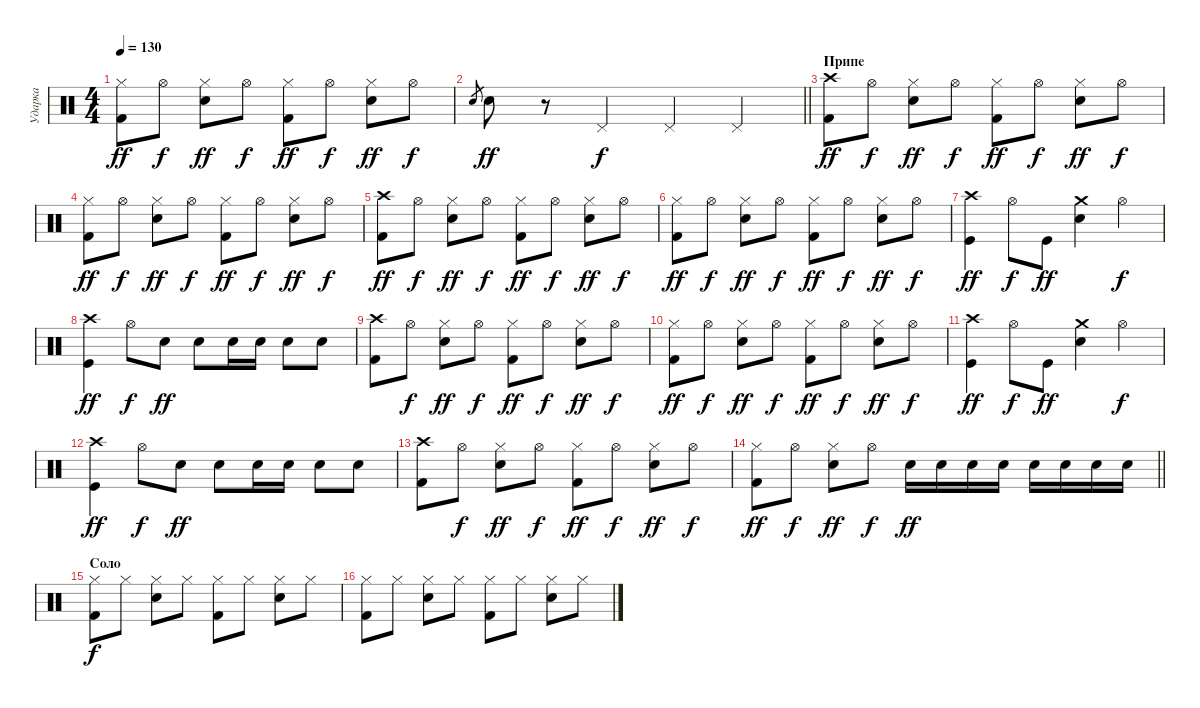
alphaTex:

\track ("Ударка" "Ударка") {instrument percussion}
\staff {score}
\articulation defaults
\ts (4 4)
\tempo 130
\clef neutral
\ks c
("Hi-Hat (closed)" "Kick (hit) 2").8{dy ff} "Hi-Hat (open)".8{dy f} ("Hi-Hat (closed)" "Snare (hit) 2").8{dy ff} "Hi-Hat (open)".8{dy f} ("Hi-Hat (closed)" "Kick (hit) 2").8{dy ff} "Hi-Hat (open)".8{dy f} ("Hi-Hat (closed)" "Snare (hit) 2").8{dy ff} "Hi-Hat (open)".8{dy f} |
\barLineRight lightlight "Snare (hit) 2".8{gr} "Snare (hit) 2".8{dy ff}
r.8 "Pedal Hi-Hat (hit)".4{dy f} "Pedal Hi-Hat (hit)".4 "Pedal Hi-Hat (hit)".4 |
\section ("" "Припе")
("Crash high (hit)" "Kick (hit) 2").8{dy ff} "Hi-Hat (open)".8{dy f} ("Hi-Hat (closed)" "Snare (hit) 2").8{dy ff} "Hi-Hat (open)".8{dy f} ("Hi-Hat (closed)" "Kick (hit) 2").8{dy ff} "Hi-Hat (open)".8{dy f} ("Hi-Hat (closed)" "Snare (hit) 2").8{dy ff} "Hi-Hat (open)".8{dy f} |
("Hi-Hat (closed)" "Kick (hit) 2").8{dy ff} "Hi-Hat (open)".8{dy f} ("Hi-Hat (closed)" "Snare (hit) 2").8{dy ff} "Hi-Hat (open)".8{dy f} ("Hi-Hat (closed)" "Kick (hit) 2").8{dy ff} "Hi-Hat (open)".8{dy f} ("Hi-Hat (closed)" "Snare (hit) 2").8{dy ff} "Hi-Hat (open)".8{dy f} |
("Crash high (hit)" "Kick (hit) 2").8{dy ff} "Hi-Hat (open)".8{dy f} ("Hi-Hat (closed)" "Snare (hit) 2").8{dy ff} "Hi-Hat (open)".8{dy f} ("Hi-Hat (closed)" "Kick (hit) 2").8{dy ff} "Hi-Hat (open)".8{dy f} ("Hi-Hat (closed)" "Snare (hit) 2").8{dy ff} "Hi-Hat (open)".8{dy f} |
("Hi-Hat (closed)" "Kick (hit) 2").8{dy ff} "Hi-Hat (open)".8{dy f} ("Hi-Hat (closed)" "Snare (hit) 2").8{dy ff} "Hi-Hat (open)".8{dy f} ("Hi-Hat (closed)" "Kick (hit) 2").8{dy ff} "Hi-Hat (open)".8{dy f} ("Hi-Hat (closed)" "Snare (hit) 2").8{dy ff} "Hi-Hat (open)".8{dy f} |
("Kick (hit)" "Crash high (hit)").4{dy ff} "Hi-Hat (open)".8{dy f} "Kick (hit)".8{dy ff} ("Snare (hit) 2" "Crash medium (hit)").4 "Hi-Hat (open)".4{dy f} |
("Kick (hit)" "Crash high (hit)").4{dy ff} "Hi-Hat (open)".8{dy f} "Snare (hit) 2".8{dy ff} "Snare (hit) 2".8 "Snare (hit) 2".16 "Snare (hit) 2".16 "Snare (hit) 2".8 "Snare (hit) 2".8 |
("Crash high (hit)" "Kick (hit) 2").8 "Hi-Hat (open)".8{dy f} ("Hi-Hat (closed)" "Snare (hit) 2").8{dy ff} "Hi-Hat (open)".8{dy f} ("Hi-Hat (closed)" "Kick (hit) 2").8{dy ff} "Hi-Hat (open)".8{dy f} ("Hi-Hat (closed)" "Snare (hit) 2").8{dy ff} "Hi-Hat (open)".8{dy f} |
("Hi-Hat (closed)" "Kick (hit) 2").8{dy ff} "Hi-Hat (open)".8{dy f} ("Hi-Hat (closed)" "Snare (hit) 2").8{dy ff} "Hi-Hat (open)".8{dy f} ("Hi-Hat (closed)" "Kick (hit) 2").8{dy ff} "Hi-Hat (open)".8{dy f} ("Hi-Hat (closed)" "Snare (hit) 2").8{dy ff} "Hi-Hat (open)".8{dy f} |
("Kick (hit)" "Crash high (hit)").4{dy ff} "Hi-Hat (open)".8{dy f} "Kick (hit)".8{dy ff} ("Snare (hit) 2" "Crash medium (hit)").4 "Hi-Hat (open)".4{dy f} |
("Kick (hit)" "Crash high (hit)").4{dy ff} "Hi-Hat (open)".8{dy f} "Snare (hit) 2".8{dy ff} "Snare (hit) 2".8 "Snare (hit) 2".16 "Snare (hit) 2".16 "Snare (hit) 2".8 "Snare (hit) 2".8 |
("Crash high (hit)" "Kick (hit) 2").8 "Hi-Hat (open)".8{dy f} ("Hi-Hat (closed)" "Snare (hit) 2").8{dy ff} "Hi-Hat (open)".8{dy f} ("Hi-Hat (closed)" "Kick (hit) 2").8{dy ff} "Hi-Hat (open)".8{dy f} ("Hi-Hat (closed)" "Snare (hit) 2").8{dy ff} "Hi-Hat (open)".8{dy f} |
\barLineRight lightlight
("Hi-Hat (closed)" "Kick (hit) 2").8{dy ff} "Hi-Hat (open)".8{dy f} ("Hi-Hat (closed)" "Snare (hit) 2").8{dy ff} "Hi-Hat (open)".8{dy f} "Snare (hit) 2".16{dy ff} "Snare (hit) 2".16 "Snare (hit) 2".16 "Snare (hit) 2".16 "Snare (hit) 2".16 "Snare (hit) 2".16 "Snare (hit) 2".16 "Snare (hit) 2".16 |
\section ("" "Соло")
("Hi-Hat (closed)" "Kick (hit) 2").8{dy f} "Hi-Hat (closed)".8 ("Hi-Hat (closed)" "Snare (hit) 2").8 "Hi-Hat (closed)".8 ("Hi-Hat (closed)" "Kick (hit) 2").8 "Hi-Hat (closed)".8 ("Hi-Hat (closed)" "Snare (hit) 2").8 "Hi-Hat (closed)".8 |
("Hi-Hat (closed)" "Kick (hit) 2").8 "Hi-Hat (closed)".8 ("Hi-Hat (closed)" "Snare (hit) 2").8 "Hi-Hat (closed)".8 ("Hi-Hat (closed)" "Kick (hit) 2").8 "Hi-Hat (closed)".8 ("Hi-Hat (closed)" "Snare (hit) 2").8 "Hi-Hat (closed)".8
